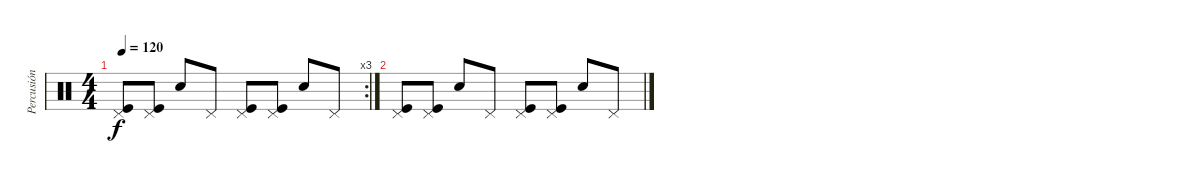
\track ("Percusión" "Percusión") {instrument percussion}
\staff {score}
\articulation defaults
\rc 3
\ts (4 4)
\tempo 120
\clef neutral
\ks c
("Pedal Hi-Hat (hit)" "Kick (hit)").8{dy f} ("Pedal Hi-Hat (hit)" "Kick (hit)").8 "Electric Snare (hit)".8 "Pedal Hi-Hat (hit)".8 ("Pedal Hi-Hat (hit)" "Kick (hit)").8 ("Pedal Hi-Hat (hit)" "Kick (hit)").8 "Electric Snare (hit)".8 "Pedal Hi-Hat (hit)".8 |
("Pedal Hi-Hat (hit)" "Kick (hit)").8 ("Pedal Hi-Hat (hit)" "Kick (hit)").8 "Electric Snare (hit)".8 "Pedal Hi-Hat (hit)".8 ("Pedal Hi-Hat (hit)" "Kick (hit)").8 ("Pedal Hi-Hat (hit)" "Kick (hit)").8 "Electric Snare (hit)".8 "Pedal Hi-Hat (hit)".8
